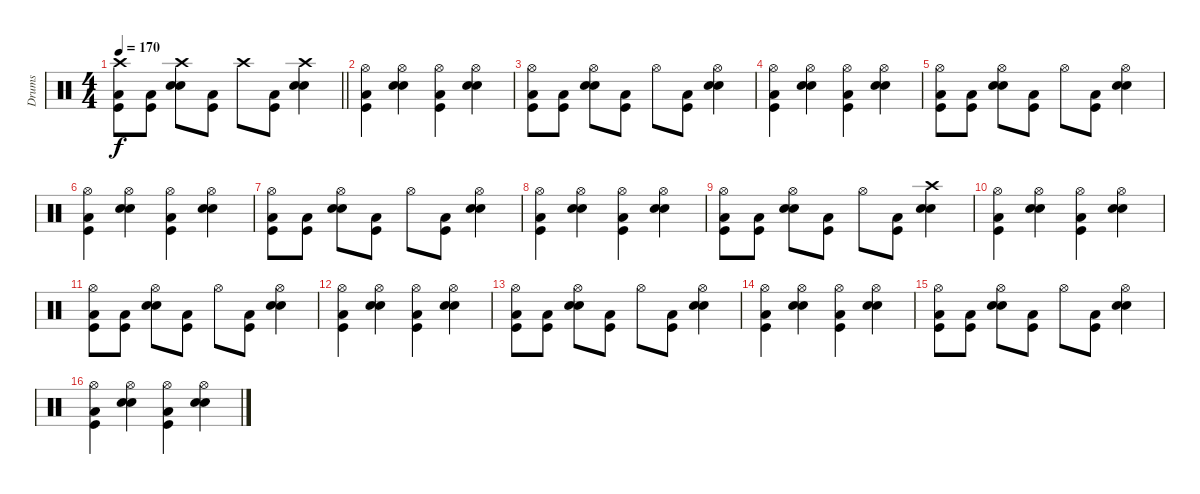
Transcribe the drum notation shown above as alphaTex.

\track ("Drums" "Drums") {instrument percussion}
\staff {score}
\articulation defaults
\ts (4 4)
\tempo 170
\clef neutral
\barLineRight lightlight
\ks c
("Crash high (hit)" "Kick (hit)" "Low Tom (hit)").8{dy f} ("Kick (hit)" "Low Tom (hit)").8 ("Crash high (hit)" "Snare (hit) 2" "Electric Snare (hit)").8 ("Kick (hit)" "Low Tom (hit)").8 "Crash high (hit)".8 ("Kick (hit)" "Low Tom (hit)").8 ("Crash high (hit)" "Snare (hit) 2" "Electric Snare (hit)").4 |
("Hi-Hat (open)" "Kick (hit)" "Low Tom (hit)").4 ("Hi-Hat (open)" "Snare (hit) 2" "Electric Snare (hit)").4 ("Hi-Hat (open)" "Kick (hit)" "Low Tom (hit)").4 ("Hi-Hat (open)" "Snare (hit) 2" "Electric Snare (hit)").4 |
("Hi-Hat (open)" "Kick (hit)" "Low Tom (hit)").8 ("Kick (hit)" "Low Tom (hit)").8 ("Hi-Hat (open)" "Snare (hit) 2" "Electric Snare (hit)").8 ("Kick (hit)" "Low Tom (hit)").8 "Hi-Hat (open)".8 ("Kick (hit)" "Low Tom (hit)").8 ("Hi-Hat (open)" "Snare (hit) 2" "Electric Snare (hit)").4 |
("Hi-Hat (open)" "Kick (hit)" "Low Tom (hit)").4 ("Hi-Hat (open)" "Snare (hit) 2" "Electric Snare (hit)").4 ("Hi-Hat (open)" "Kick (hit)" "Low Tom (hit)").4 ("Hi-Hat (open)" "Snare (hit) 2" "Electric Snare (hit)").4 |
("Hi-Hat (open)" "Kick (hit)" "Low Tom (hit)").8 ("Kick (hit)" "Low Tom (hit)").8 ("Hi-Hat (open)" "Snare (hit) 2" "Electric Snare (hit)").8 ("Kick (hit)" "Low Tom (hit)").8 "Hi-Hat (open)".8 ("Kick (hit)" "Low Tom (hit)").8 ("Hi-Hat (open)" "Snare (hit) 2" "Electric Snare (hit)").4 |
("Hi-Hat (open)" "Kick (hit)" "Low Tom (hit)").4 ("Hi-Hat (open)" "Snare (hit) 2" "Electric Snare (hit)").4 ("Hi-Hat (open)" "Kick (hit)" "Low Tom (hit)").4 ("Hi-Hat (open)" "Snare (hit) 2" "Electric Snare (hit)").4 |
("Hi-Hat (open)" "Kick (hit)" "Low Tom (hit)").8 ("Kick (hit)" "Low Tom (hit)").8 ("Hi-Hat (open)" "Snare (hit) 2" "Electric Snare (hit)").8 ("Kick (hit)" "Low Tom (hit)").8 "Hi-Hat (open)".8 ("Kick (hit)" "Low Tom (hit)").8 ("Hi-Hat (open)" "Snare (hit) 2" "Electric Snare (hit)").4 |
("Hi-Hat (open)" "Kick (hit)" "Low Tom (hit)").4 ("Hi-Hat (open)" "Snare (hit) 2" "Electric Snare (hit)").4 ("Hi-Hat (open)" "Kick (hit)" "Low Tom (hit)").4 ("Hi-Hat (open)" "Snare (hit) 2" "Electric Snare (hit)").4 |
("Hi-Hat (open)" "Kick (hit)" "Low Tom (hit)").8 ("Kick (hit)" "Low Tom (hit)").8 ("Hi-Hat (open)" "Snare (hit) 2" "Electric Snare (hit)").8 ("Kick (hit)" "Low Tom (hit)").8 "Hi-Hat (open)".8 ("Kick (hit)" "Low Tom (hit)").8 ("Crash high (hit)" "Snare (hit) 2" "Electric Snare (hit)").4 |
("Hi-Hat (open)" "Kick (hit)" "Low Tom (hit)").4 ("Hi-Hat (open)" "Snare (hit) 2" "Electric Snare (hit)").4 ("Hi-Hat (open)" "Kick (hit)" "Low Tom (hit)").4 ("Hi-Hat (open)" "Snare (hit) 2" "Electric Snare (hit)").4 |
("Hi-Hat (open)" "Kick (hit)" "Low Tom (hit)").8 ("Kick (hit)" "Low Tom (hit)").8 ("Hi-Hat (open)" "Snare (hit) 2" "Electric Snare (hit)").8 ("Kick (hit)" "Low Tom (hit)").8 "Hi-Hat (open)".8 ("Kick (hit)" "Low Tom (hit)").8 ("Hi-Hat (open)" "Snare (hit) 2" "Electric Snare (hit)").4 |
("Hi-Hat (open)" "Kick (hit)" "Low Tom (hit)").4 ("Hi-Hat (open)" "Snare (hit) 2" "Electric Snare (hit)").4 ("Hi-Hat (open)" "Kick (hit)" "Low Tom (hit)").4 ("Hi-Hat (open)" "Snare (hit) 2" "Electric Snare (hit)").4 |
("Hi-Hat (open)" "Kick (hit)" "Low Tom (hit)").8 ("Kick (hit)" "Low Tom (hit)").8 ("Hi-Hat (open)" "Snare (hit) 2" "Electric Snare (hit)").8 ("Kick (hit)" "Low Tom (hit)").8 "Hi-Hat (open)".8 ("Kick (hit)" "Low Tom (hit)").8 ("Hi-Hat (open)" "Snare (hit) 2" "Electric Snare (hit)").4 |
("Hi-Hat (open)" "Kick (hit)" "Low Tom (hit)").4 ("Hi-Hat (open)" "Snare (hit) 2" "Electric Snare (hit)").4 ("Hi-Hat (open)" "Kick (hit)" "Low Tom (hit)").4 ("Hi-Hat (open)" "Snare (hit) 2" "Electric Snare (hit)").4 |
("Hi-Hat (open)" "Kick (hit)" "Low Tom (hit)").8 ("Kick (hit)" "Low Tom (hit)").8 ("Hi-Hat (open)" "Snare (hit) 2" "Electric Snare (hit)").8 ("Kick (hit)" "Low Tom (hit)").8 "Hi-Hat (open)".8 ("Kick (hit)" "Low Tom (hit)").8 ("Hi-Hat (open)" "Snare (hit) 2" "Electric Snare (hit)").4 |
("Hi-Hat (open)" "Kick (hit)" "Low Tom (hit)").4 ("Hi-Hat (open)" "Snare (hit) 2" "Electric Snare (hit)").4 ("Hi-Hat (open)" "Kick (hit)" "Low Tom (hit)").4 ("Hi-Hat (open)" "Snare (hit) 2" "Electric Snare (hit)").4
